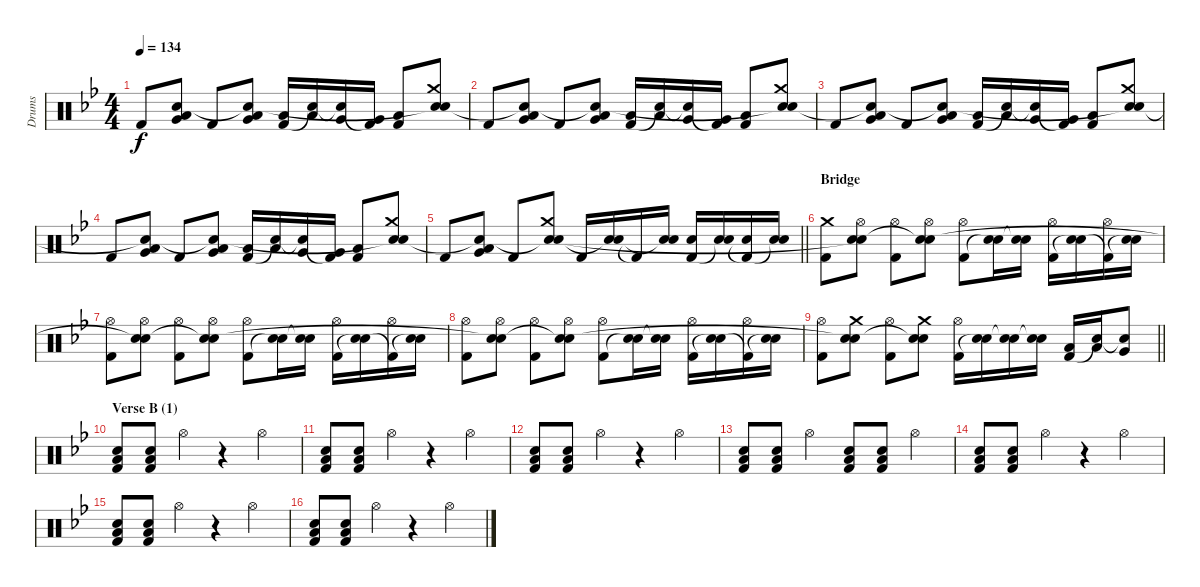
\track ("Drums" "Drums") {instrument percussion}
\staff {score}
\articulation defaults
\ts (4 4)
\tempo 134
\clef neutral
\ks gminor "Kick (hit) 2".8{dy f}
("Very Low Tom (hit)" "Low Floor Tom (hit)" "Snare (hit)"{t}).8 "Kick (hit) 2".8 ("Very Low Tom (hit)" "Low Floor Tom (hit)" "Snare (hit)"{t}).8 ("Low Tom (hit)" "Kick (hit) 2").16 ("Low Tom (hit)" "Snare (hit)"{t}).16 ("Very Low Tom (hit)" "Snare (hit)"{t}).16 ("Very Low Tom (hit)" "Kick (hit) 2"{t}).16 ("Low Floor Tom (hit)" "Kick (hit) 2").8 ("Crash medium (hit)" "Electric Snare (hit)" "Snare (hit)"{t}).8 |
"Kick (hit) 2".8 ("Very Low Tom (hit)" "Low Floor Tom (hit)" "Snare (hit)"{t}).8 "Kick (hit) 2".8 ("Very Low Tom (hit)" "Low Floor Tom (hit)" "Snare (hit)"{t}).8 ("Low Tom (hit)" "Kick (hit) 2").16 ("Low Tom (hit)" "Snare (hit)"{t}).16 ("Very Low Tom (hit)" "Snare (hit)"{t}).16 ("Very Low Tom (hit)" "Kick (hit) 2"{t}).16 ("Low Floor Tom (hit)" "Kick (hit) 2").8 ("Crash medium (hit)" "Electric Snare (hit)" "Snare (hit)"{t}).8 |
"Kick (hit) 2".8 ("Very Low Tom (hit)" "Low Floor Tom (hit)" "Snare (hit)"{t}).8 "Kick (hit) 2".8 ("Very Low Tom (hit)" "Low Floor Tom (hit)" "Snare (hit)"{t}).8 ("Low Tom (hit)" "Kick (hit) 2").16 ("Low Tom (hit)" "Snare (hit)"{t}).16 ("Very Low Tom (hit)" "Snare (hit)"{t}).16 ("Very Low Tom (hit)" "Kick (hit) 2"{t}).16 ("Low Floor Tom (hit)" "Kick (hit) 2").8 ("Crash medium (hit)" "Electric Snare (hit)" "Snare (hit)"{t}).8 |
"Kick (hit) 2".8 ("Very Low Tom (hit)" "Low Floor Tom (hit)" "Snare (hit)"{t}).8 "Kick (hit) 2".8 ("Very Low Tom (hit)" "Low Floor Tom (hit)" "Snare (hit)"{t}).8 ("Low Tom (hit)" "Kick (hit) 2").16 ("Low Tom (hit)" "Snare (hit)"{t}).16 ("Very Low Tom (hit)" "Snare (hit)"{t}).16 ("Very Low Tom (hit)" "Kick (hit) 2"{t}).16 ("Low Floor Tom (hit)" "Kick (hit) 2").8 ("Crash medium (hit)" "Electric Snare (hit)" "Snare (hit)"{t}).8 |
\barLineRight lightlight "Kick (hit) 2".8
("Very Low Tom (hit)" "Low Floor Tom (hit)" "Snare (hit)"{t}).8 "Kick (hit) 2".8 ("Crash medium (hit)" "Electric Snare (hit)" "Snare (hit)"{t}).8 "Kick (hit) 2".16 ("Electric Snare (hit)" "Snare (hit)"{t}).16 "Kick (hit) 2"{t}.16 ("Electric Snare (hit)" "Snare (hit)"{t}).16 ("Electric Snare (hit)" "Kick (hit) 2").16 ("Electric Snare (hit)" "Snare (hit)"{t}).16 ("Electric Snare (hit)" "Kick (hit) 2"{t}).16 ("Electric Snare (hit)" "Snare (hit)"{t}).16 |
\section ("" "Bridge")
("Crash medium (hit)" "Kick (hit) 2").8 ("Hi-Hat (open)" "Electric Snare (hit)" "Snare (hit)"{t}).8 ("Hi-Hat (open)" "Kick (hit) 2").8 ("Hi-Hat (open)" "Electric Snare (hit)" "Snare (hit)"{t}).8 ("Hi-Hat (open)" "Kick (hit) 2").8 ("Electric Snare (hit)" "Snare (hit)"{t}).16 ("Electric Snare (hit)" "Snare (hit)"{t}).16 ("Hi-Hat (open)" "Kick (hit) 2").16 ("Electric Snare (hit)" "Snare (hit)"{t}).16 ("Hi-Hat (open)" "Kick (hit) 2"{t}).16 ("Electric Snare (hit)" "Snare (hit)"{t}).16 |
("Hi-Hat (open)" "Kick (hit) 2").8 ("Hi-Hat (open)" "Electric Snare (hit)" "Snare (hit)"{t}).8 ("Hi-Hat (open)" "Kick (hit) 2").8 ("Hi-Hat (open)" "Electric Snare (hit)" "Snare (hit)"{t}).8 ("Hi-Hat (open)" "Kick (hit) 2").8 ("Electric Snare (hit)" "Snare (hit)"{t}).16 ("Electric Snare (hit)" "Snare (hit)"{t}).16 ("Hi-Hat (open)" "Kick (hit) 2").16 ("Electric Snare (hit)" "Snare (hit)"{t}).16 ("Hi-Hat (open)" "Kick (hit) 2"{t}).16 ("Electric Snare (hit)" "Snare (hit)"{t}).16 |
("Hi-Hat (open)" "Kick (hit) 2").8 ("Hi-Hat (open)" "Electric Snare (hit)" "Snare (hit)"{t}).8 ("Hi-Hat (open)" "Kick (hit) 2").8 ("Hi-Hat (open)" "Electric Snare (hit)" "Snare (hit)"{t}).8 ("Hi-Hat (open)" "Kick (hit) 2").8 ("Electric Snare (hit)" "Snare (hit)"{t}).16 ("Electric Snare (hit)" "Snare (hit)"{t}).16 ("Hi-Hat (open)" "Kick (hit) 2").16 ("Electric Snare (hit)" "Snare (hit)"{t}).16 ("Hi-Hat (open)" "Kick (hit) 2"{t}).16 ("Electric Snare (hit)" "Snare (hit)"{t}).16 |
\barLineRight lightlight
("Hi-Hat (open)" "Kick (hit) 2").8 ("Crash medium (hit)" "Electric Snare (hit)" "Snare (hit)"{t}).8 ("Hi-Hat (open)" "Kick (hit) 2").8 ("Crash medium (hit)" "Electric Snare (hit)" "Snare (hit)"{t}).8 ("Hi-Hat (open)" "Kick (hit) 2").16 ("Electric Snare (hit)" "Snare (hit)"{t}).16 ("Electric Snare (hit)" "Snare (hit)"{t}).16 ("Electric Snare (hit)" "Snare (hit)"{t}).16 ("Low Tom (hit)" "Kick (hit) 2").16 ("Low Tom (hit)" "Snare (hit)"{t}).16 ("Very Low Tom (hit)" "Snare (hit)"{t}).8 |
\section ("" "Verse B (1)")
("Electric Snare (hit)" "Low Floor Tom (hit)" "Kick (hit) 2").8 ("Electric Snare (hit)" "Low Floor Tom (hit)" "Kick (hit) 2").8 "Hi-Hat (open)".4 r.4 "Hi-Hat (open)".4 |
("Electric Snare (hit)" "Low Floor Tom (hit)" "Kick (hit) 2").8 ("Electric Snare (hit)" "Low Floor Tom (hit)" "Kick (hit) 2").8 "Hi-Hat (open)".4 r.4 "Hi-Hat (open)".4 |
("Electric Snare (hit)" "Low Floor Tom (hit)" "Kick (hit) 2").8 ("Electric Snare (hit)" "Low Floor Tom (hit)" "Kick (hit) 2").8 "Hi-Hat (open)".4 r.4 "Hi-Hat (open)".4 |
("Electric Snare (hit)" "Low Floor Tom (hit)" "Kick (hit) 2").8 ("Electric Snare (hit)" "Low Floor Tom (hit)" "Kick (hit) 2").8 "Hi-Hat (open)".4 ("Electric Snare (hit)" "Low Floor Tom (hit)" "Kick (hit) 2").8 ("Electric Snare (hit)" "Low Floor Tom (hit)" "Kick (hit) 2").8 "Hi-Hat (open)".4 |
("Electric Snare (hit)" "Low Floor Tom (hit)" "Kick (hit) 2").8 ("Electric Snare (hit)" "Low Floor Tom (hit)" "Kick (hit) 2").8 "Hi-Hat (open)".4 r.4 "Hi-Hat (open)".4 |
("Electric Snare (hit)" "Low Floor Tom (hit)" "Kick (hit) 2").8 ("Electric Snare (hit)" "Low Floor Tom (hit)" "Kick (hit) 2").8 "Hi-Hat (open)".4 r.4 "Hi-Hat (open)".4 |
("Electric Snare (hit)" "Low Floor Tom (hit)" "Kick (hit) 2").8 ("Electric Snare (hit)" "Low Floor Tom (hit)" "Kick (hit) 2").8 "Hi-Hat (open)".4 r.4 "Hi-Hat (open)".4
